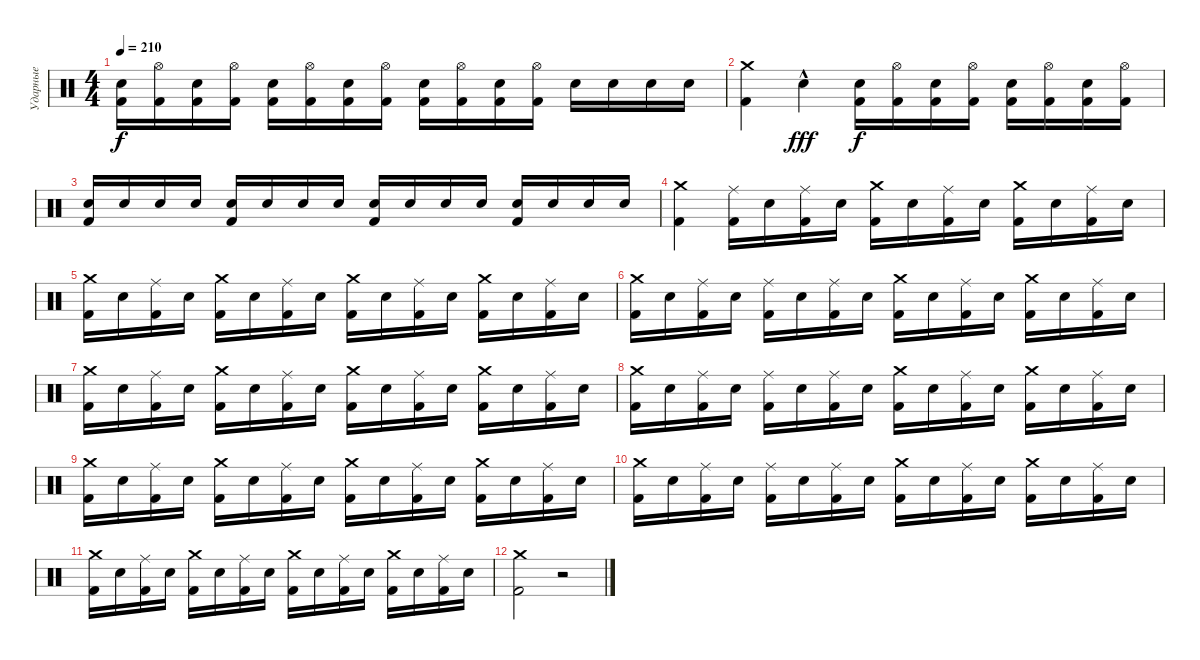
\track ("Ударные" "Ударные") {instrument percussion}
\staff {score}
\articulation defaults
\ts (4 4)
\tempo 210
\clef neutral
\ks c
("Electric Snare (hit)" "Kick (hit) 2").16{dy f} ("Hi-Hat (open)" "Kick (hit) 2").16 ("Electric Snare (hit)" "Kick (hit) 2").16 ("Hi-Hat (open)" "Kick (hit) 2").16 ("Electric Snare (hit)" "Kick (hit) 2").16 ("Hi-Hat (open)" "Kick (hit) 2").16 ("Electric Snare (hit)" "Kick (hit) 2").16 ("Hi-Hat (open)" "Kick (hit) 2").16 ("Electric Snare (hit)" "Kick (hit) 2").16 ("Hi-Hat (open)" "Kick (hit) 2").16 ("Electric Snare (hit)" "Kick (hit) 2").16 ("Hi-Hat (open)" "Kick (hit) 2").16 "Electric Snare (hit)".16 "Electric Snare (hit)".16 "Electric Snare (hit)".16 "Electric Snare (hit)".16 |
("Crash medium (hit)" "Kick (hit) 2").4 "Electric Snare (hit)"{hac}.4{dy fff} ("Electric Snare (hit)" "Kick (hit) 2").16{dy f} ("Hi-Hat (open)" "Kick (hit) 2").16 ("Electric Snare (hit)" "Kick (hit) 2").16 ("Hi-Hat (open)" "Kick (hit) 2").16 ("Electric Snare (hit)" "Kick (hit) 2").16 ("Hi-Hat (open)" "Kick (hit) 2").16 ("Electric Snare (hit)" "Kick (hit) 2").16 ("Hi-Hat (open)" "Kick (hit) 2").16 |
("Electric Snare (hit)" "Kick (hit) 2").16 "Electric Snare (hit)".16 "Electric Snare (hit)".16 "Electric Snare (hit)".16 ("Electric Snare (hit)" "Kick (hit) 2").16 "Electric Snare (hit)".16 "Electric Snare (hit)".16 "Electric Snare (hit)".16 ("Electric Snare (hit)" "Kick (hit) 2").16 "Electric Snare (hit)".16 "Electric Snare (hit)".16 "Electric Snare (hit)".16 ("Electric Snare (hit)" "Kick (hit) 2").16 "Electric Snare (hit)".16 "Electric Snare (hit)".16 "Electric Snare (hit)".16 |
("Crash medium (hit)" "Kick (hit) 2").4 ("Ride (middle)" "Kick (hit) 2").16 "Electric Snare (hit)".16 ("Ride (middle)" "Kick (hit) 2").16 "Electric Snare (hit)".16 ("Crash medium (hit)" "Kick (hit) 2").16 "Electric Snare (hit)".16 ("Ride (middle)" "Kick (hit) 2").16 "Electric Snare (hit)".16 ("Crash medium (hit)" "Kick (hit) 2").16 "Electric Snare (hit)".16 ("Ride (middle)" "Kick (hit) 2").16 "Electric Snare (hit)".16 |
("Crash medium (hit)" "Kick (hit) 2").16 "Electric Snare (hit)".16 ("Ride (middle)" "Kick (hit) 2").16 "Electric Snare (hit)".16 ("Crash medium (hit)" "Kick (hit) 2").16 "Electric Snare (hit)".16 ("Ride (middle)" "Kick (hit) 2").16 "Electric Snare (hit)".16 ("Crash medium (hit)" "Kick (hit) 2").16 "Electric Snare (hit)".16 ("Ride (middle)" "Kick (hit) 2").16 "Electric Snare (hit)".16 ("Crash medium (hit)" "Kick (hit) 2").16 "Electric Snare (hit)".16 ("Ride (middle)" "Kick (hit) 2").16 "Electric Snare (hit)".16 |
("Crash medium (hit)" "Kick (hit) 2").16 "Electric Snare (hit)".16 ("Ride (middle)" "Kick (hit) 2").16 "Electric Snare (hit)".16 ("Ride (middle)" "Kick (hit) 2").16 "Electric Snare (hit)".16 ("Ride (middle)" "Kick (hit) 2").16 "Electric Snare (hit)".16 ("Crash medium (hit)" "Kick (hit) 2").16 "Electric Snare (hit)".16 ("Ride (middle)" "Kick (hit) 2").16 "Electric Snare (hit)".16 ("Crash medium (hit)" "Kick (hit) 2").16 "Electric Snare (hit)".16 ("Ride (middle)" "Kick (hit) 2").16 "Electric Snare (hit)".16 |
("Crash medium (hit)" "Kick (hit) 2").16 "Electric Snare (hit)".16 ("Ride (middle)" "Kick (hit) 2").16 "Electric Snare (hit)".16 ("Crash medium (hit)" "Kick (hit) 2").16 "Electric Snare (hit)".16 ("Ride (middle)" "Kick (hit) 2").16 "Electric Snare (hit)".16 ("Crash medium (hit)" "Kick (hit) 2").16 "Electric Snare (hit)".16 ("Ride (middle)" "Kick (hit) 2").16 "Electric Snare (hit)".16 ("Crash medium (hit)" "Kick (hit) 2").16 "Electric Snare (hit)".16 ("Ride (middle)" "Kick (hit) 2").16 "Electric Snare (hit)".16 |
("Crash medium (hit)" "Kick (hit) 2").16 "Electric Snare (hit)".16 ("Ride (middle)" "Kick (hit) 2").16 "Electric Snare (hit)".16 ("Ride (middle)" "Kick (hit) 2").16 "Electric Snare (hit)".16 ("Ride (middle)" "Kick (hit) 2").16 "Electric Snare (hit)".16 ("Crash medium (hit)" "Kick (hit) 2").16 "Electric Snare (hit)".16 ("Ride (middle)" "Kick (hit) 2").16 "Electric Snare (hit)".16 ("Crash medium (hit)" "Kick (hit) 2").16 "Electric Snare (hit)".16 ("Ride (middle)" "Kick (hit) 2").16 "Electric Snare (hit)".16 |
("Crash medium (hit)" "Kick (hit) 2").16 "Electric Snare (hit)".16 ("Ride (middle)" "Kick (hit) 2").16 "Electric Snare (hit)".16 ("Crash medium (hit)" "Kick (hit) 2").16 "Electric Snare (hit)".16 ("Ride (middle)" "Kick (hit) 2").16 "Electric Snare (hit)".16 ("Crash medium (hit)" "Kick (hit) 2").16 "Electric Snare (hit)".16 ("Ride (middle)" "Kick (hit) 2").16 "Electric Snare (hit)".16 ("Crash medium (hit)" "Kick (hit) 2").16 "Electric Snare (hit)".16 ("Ride (middle)" "Kick (hit) 2").16 "Electric Snare (hit)".16 |
("Crash medium (hit)" "Kick (hit) 2").16 "Electric Snare (hit)".16 ("Ride (middle)" "Kick (hit) 2").16 "Electric Snare (hit)".16 ("Ride (middle)" "Kick (hit) 2").16 "Electric Snare (hit)".16 ("Ride (middle)" "Kick (hit) 2").16 "Electric Snare (hit)".16 ("Crash medium (hit)" "Kick (hit) 2").16 "Electric Snare (hit)".16 ("Ride (middle)" "Kick (hit) 2").16 "Electric Snare (hit)".16 ("Crash medium (hit)" "Kick (hit) 2").16 "Electric Snare (hit)".16 ("Ride (middle)" "Kick (hit) 2").16 "Electric Snare (hit)".16 |
("Crash medium (hit)" "Kick (hit) 2").16 "Electric Snare (hit)".16 ("Ride (middle)" "Kick (hit) 2").16 "Electric Snare (hit)".16 ("Crash medium (hit)" "Kick (hit) 2").16 "Electric Snare (hit)".16 ("Ride (middle)" "Kick (hit) 2").16 "Electric Snare (hit)".16 ("Crash medium (hit)" "Kick (hit) 2").16 "Electric Snare (hit)".16 ("Ride (middle)" "Kick (hit) 2").16 "Electric Snare (hit)".16 ("Crash medium (hit)" "Kick (hit) 2").16 "Electric Snare (hit)".16 ("Ride (middle)" "Kick (hit) 2").16 "Electric Snare (hit)".16 |
("Crash medium (hit)" "Kick (hit) 2").2 r.2
